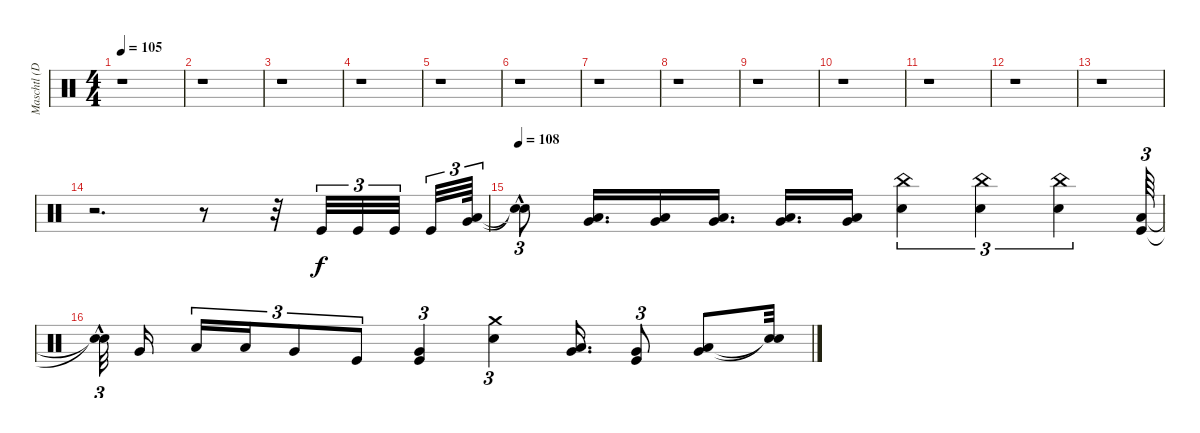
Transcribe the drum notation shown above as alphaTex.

\track ("Maschtl (Drums)" "Maschtl (D") {instrument percussion}
\staff {score}
\articulation defaults
\ts (4 4)
\tempo 105
\clef neutral
\ks c
r.1{dy f} |
r.1 |
r.1 |
r.1 |
r.1 |
r.1 |
r.1 |
r.1 |
r.1 |
r.1 |
r.1 |
r.1 |
r.1 |
r.2{d} r.8 r.32 "Kick (hit)".32{tu (3 2)} "Kick (hit)".32{tu (3 2)} "Kick (hit)".32{tu (3 2)} "Kick (hit)".32{tu (3 2)} ("Very Low Tom (hit)" "Low Tom (hit)").64{tu (3 2)} |
\tempo 108
("Snare (hit)"{t} "Snare (hit)"{hac t}).8{tu (3 2)} ("Very Low Tom (hit)" "Low Tom (hit)").16{d} ("Very Low Tom (hit)" "Low Tom (hit)").16 ("Very Low Tom (hit)" "Low Tom (hit)").16{d} ("Very Low Tom (hit)" "Low Tom (hit)").16{d} ("Very Low Tom (hit)" "Low Tom (hit)").16 ("China (hit)" "Electric Snare (hit)").4{tu (3 2)} ("China (hit)" "Electric Snare (hit)").4{tu (3 2)} ("China (hit)" "Electric Snare (hit)").4{tu (3 2)} ("Kick (hit)" "Low Tom (hit)").64{tu (3 2)} |
("Snare (hit)"{t} "Snare (hit)"{hac t}).32{tu (3 2)} "Very Low Tom (hit)".16 "Low Tom (hit)".16{tu (3 2)} "Low Tom (hit)".16{tu (3 2)} "Very Low Tom (hit)".8{tu (3 2)} "Kick (hit)".8{tu (3 2)} ("Very Low Tom (hit)" "Kick (hit)").4{tu (3 2)} ("Crash medium (hit)" "Electric Snare (hit)").4{tu (3 2)} ("Very Low Tom (hit)" "Low Tom (hit)").16{d} ("Very Low Tom (hit)" "Kick (hit)").8{tu (3 2)} ("Very Low Tom (hit)" "Low Tom (hit)").8 ("Snare (hit)"{t} "Snare (hit)"{t}).32
